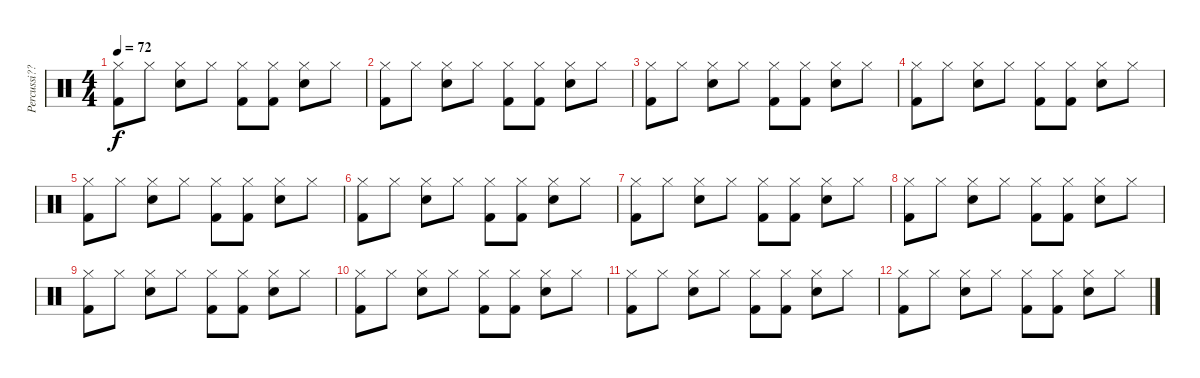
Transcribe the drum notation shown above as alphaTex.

\track ("Percussi??TEdit" "Percussi??") {instrument percussion}
\staff {score}
\articulation defaults
\ts (4 4)
\tempo 72
\clef neutral
\ks c
("Hi-Hat (closed)" "Kick (hit) 2").8{dy f} "Hi-Hat (closed)".8 ("Hi-Hat (closed)" "Electric Snare (hit)").8 "Hi-Hat (closed)".8 ("Hi-Hat (closed)" "Kick (hit) 2").8 ("Hi-Hat (closed)" "Kick (hit) 2").8 ("Hi-Hat (closed)" "Electric Snare (hit)").8 "Hi-Hat (closed)".8 |
("Hi-Hat (closed)" "Kick (hit) 2").8 "Hi-Hat (closed)".8 ("Hi-Hat (closed)" "Electric Snare (hit)").8 "Hi-Hat (closed)".8 ("Hi-Hat (closed)" "Kick (hit) 2").8 ("Hi-Hat (closed)" "Kick (hit) 2").8 ("Hi-Hat (closed)" "Electric Snare (hit)").8 "Hi-Hat (closed)".8 |
("Hi-Hat (closed)" "Kick (hit) 2").8 "Hi-Hat (closed)".8 ("Hi-Hat (closed)" "Electric Snare (hit)").8 "Hi-Hat (closed)".8 ("Hi-Hat (closed)" "Kick (hit) 2").8 ("Hi-Hat (closed)" "Kick (hit) 2").8 ("Hi-Hat (closed)" "Electric Snare (hit)").8 "Hi-Hat (closed)".8 |
("Hi-Hat (closed)" "Kick (hit) 2").8 "Hi-Hat (closed)".8 ("Hi-Hat (closed)" "Electric Snare (hit)").8 "Hi-Hat (closed)".8 ("Hi-Hat (closed)" "Kick (hit) 2").8 ("Hi-Hat (closed)" "Kick (hit) 2").8 ("Hi-Hat (closed)" "Electric Snare (hit)").8 "Hi-Hat (closed)".8 |
("Hi-Hat (closed)" "Kick (hit) 2").8 "Hi-Hat (closed)".8 ("Hi-Hat (closed)" "Electric Snare (hit)").8 "Hi-Hat (closed)".8 ("Hi-Hat (closed)" "Kick (hit) 2").8 ("Hi-Hat (closed)" "Kick (hit) 2").8 ("Hi-Hat (closed)" "Electric Snare (hit)").8 "Hi-Hat (closed)".8 |
("Hi-Hat (closed)" "Kick (hit) 2").8 "Hi-Hat (closed)".8 ("Hi-Hat (closed)" "Electric Snare (hit)").8 "Hi-Hat (closed)".8 ("Hi-Hat (closed)" "Kick (hit) 2").8 ("Hi-Hat (closed)" "Kick (hit) 2").8 ("Hi-Hat (closed)" "Electric Snare (hit)").8 "Hi-Hat (closed)".8 |
("Hi-Hat (closed)" "Kick (hit) 2").8 "Hi-Hat (closed)".8 ("Hi-Hat (closed)" "Electric Snare (hit)").8 "Hi-Hat (closed)".8 ("Hi-Hat (closed)" "Kick (hit) 2").8 ("Hi-Hat (closed)" "Kick (hit) 2").8 ("Hi-Hat (closed)" "Electric Snare (hit)").8 "Hi-Hat (closed)".8 |
("Hi-Hat (closed)" "Kick (hit) 2").8 "Hi-Hat (closed)".8 ("Hi-Hat (closed)" "Electric Snare (hit)").8 "Hi-Hat (closed)".8 ("Hi-Hat (closed)" "Kick (hit) 2").8 ("Hi-Hat (closed)" "Kick (hit) 2").8 ("Hi-Hat (closed)" "Electric Snare (hit)").8 "Hi-Hat (closed)".8 |
("Hi-Hat (closed)" "Kick (hit) 2").8 "Hi-Hat (closed)".8 ("Hi-Hat (closed)" "Electric Snare (hit)").8 "Hi-Hat (closed)".8 ("Hi-Hat (closed)" "Kick (hit) 2").8 ("Hi-Hat (closed)" "Kick (hit) 2").8 ("Hi-Hat (closed)" "Electric Snare (hit)").8 "Hi-Hat (closed)".8 |
("Hi-Hat (closed)" "Kick (hit) 2").8 "Hi-Hat (closed)".8 ("Hi-Hat (closed)" "Electric Snare (hit)").8 "Hi-Hat (closed)".8 ("Hi-Hat (closed)" "Kick (hit) 2").8 ("Hi-Hat (closed)" "Kick (hit) 2").8 ("Hi-Hat (closed)" "Electric Snare (hit)").8 "Hi-Hat (closed)".8 |
("Hi-Hat (closed)" "Kick (hit) 2").8 "Hi-Hat (closed)".8 ("Hi-Hat (closed)" "Electric Snare (hit)").8 "Hi-Hat (closed)".8 ("Hi-Hat (closed)" "Kick (hit) 2").8 ("Hi-Hat (closed)" "Kick (hit) 2").8 ("Hi-Hat (closed)" "Electric Snare (hit)").8 "Hi-Hat (closed)".8 |
("Hi-Hat (closed)" "Kick (hit) 2").8 "Hi-Hat (closed)".8 ("Hi-Hat (closed)" "Electric Snare (hit)").8 "Hi-Hat (closed)".8 ("Hi-Hat (closed)" "Kick (hit) 2").8 ("Hi-Hat (closed)" "Kick (hit) 2").8 ("Hi-Hat (closed)" "Electric Snare (hit)").8 "Hi-Hat (closed)".8
